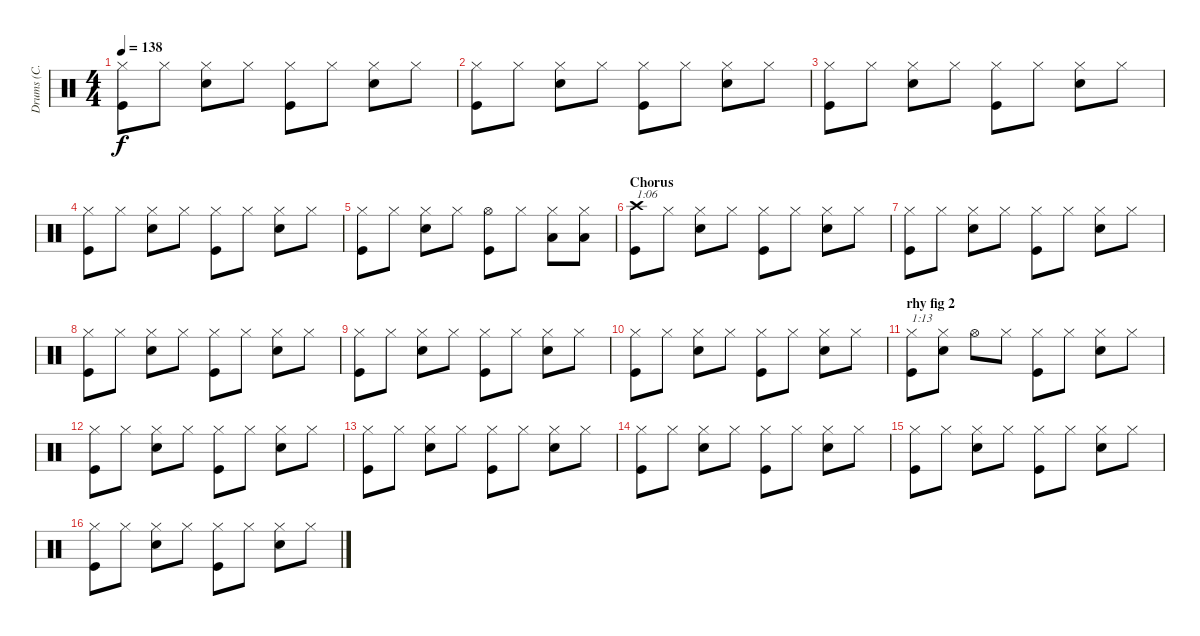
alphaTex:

\track ("Drums (C. Watts)" "Drums (C. ") {instrument percussion}
\staff {score}
\articulation defaults
\ts (4 4)
\tempo 138
\clef neutral
\ks c
("Hi-Hat (closed)" "Kick (hit)").8{dy f} "Hi-Hat (closed)".8 ("Hi-Hat (closed)" "Snare (hit) 2").8 "Hi-Hat (closed)".8 ("Hi-Hat (closed)" "Kick (hit)").8 "Hi-Hat (closed)".8 ("Hi-Hat (closed)" "Snare (hit) 2").8 "Hi-Hat (closed)".8 |
("Hi-Hat (closed)" "Kick (hit)").8 "Hi-Hat (closed)".8 ("Hi-Hat (closed)" "Snare (hit) 2").8 "Hi-Hat (closed)".8 ("Hi-Hat (closed)" "Kick (hit)").8 "Hi-Hat (closed)".8 ("Hi-Hat (closed)" "Snare (hit) 2").8 "Hi-Hat (closed)".8 |
("Hi-Hat (closed)" "Kick (hit)").8 "Hi-Hat (closed)".8 ("Hi-Hat (closed)" "Snare (hit) 2").8 "Hi-Hat (closed)".8 ("Hi-Hat (closed)" "Kick (hit)").8 "Hi-Hat (closed)".8 ("Hi-Hat (closed)" "Snare (hit) 2").8 "Hi-Hat (closed)".8 |
("Hi-Hat (closed)" "Kick (hit)").8 "Hi-Hat (closed)".8 ("Hi-Hat (closed)" "Snare (hit) 2").8 "Hi-Hat (closed)".8 ("Hi-Hat (closed)" "Kick (hit)").8 "Hi-Hat (closed)".8 ("Hi-Hat (closed)" "Snare (hit) 2").8 "Hi-Hat (closed)".8 |
("Hi-Hat (closed)" "Kick (hit)").8 "Hi-Hat (closed)".8 ("Hi-Hat (closed)" "Snare (hit) 2").8 "Hi-Hat (closed)".8 ("Hi-Hat (open)" "Kick (hit)").8 "Hi-Hat (closed)".8 ("Hi-Hat (closed)" "Low Floor Tom (hit)").8 ("Hi-Hat (closed)" "Low Floor Tom (hit)").8 |
\section ("" "Chorus")
("Crash high (hit)" "Kick (hit)").8{txt "1:06"} "Hi-Hat (closed)".8 ("Hi-Hat (closed)" "Snare (hit) 2").8 "Hi-Hat (closed)".8 ("Hi-Hat (closed)" "Kick (hit)").8 "Hi-Hat (closed)".8 ("Hi-Hat (closed)" "Snare (hit) 2").8 "Hi-Hat (closed)".8 |
("Hi-Hat (closed)" "Kick (hit)").8 "Hi-Hat (closed)".8 ("Hi-Hat (closed)" "Snare (hit) 2").8 "Hi-Hat (closed)".8 ("Hi-Hat (closed)" "Kick (hit)").8 "Hi-Hat (closed)".8 ("Hi-Hat (closed)" "Snare (hit) 2").8 "Hi-Hat (closed)".8 |
("Hi-Hat (closed)" "Kick (hit)").8 "Hi-Hat (closed)".8 ("Hi-Hat (closed)" "Snare (hit) 2").8 "Hi-Hat (closed)".8 ("Hi-Hat (closed)" "Kick (hit)").8 "Hi-Hat (closed)".8 ("Hi-Hat (closed)" "Snare (hit) 2").8 "Hi-Hat (closed)".8 |
("Hi-Hat (closed)" "Kick (hit)").8 "Hi-Hat (closed)".8 ("Hi-Hat (closed)" "Snare (hit) 2").8 "Hi-Hat (closed)".8 ("Hi-Hat (closed)" "Kick (hit)").8 "Hi-Hat (closed)".8 ("Hi-Hat (closed)" "Snare (hit) 2").8 "Hi-Hat (closed)".8 |
("Hi-Hat (closed)" "Kick (hit)").8 "Hi-Hat (closed)".8 ("Hi-Hat (closed)" "Snare (hit) 2").8 "Hi-Hat (closed)".8 ("Hi-Hat (closed)" "Kick (hit)").8 "Hi-Hat (closed)".8 ("Hi-Hat (closed)" "Snare (hit) 2").8 "Hi-Hat (closed)".8 |
\section ("" "rhy fig 2")
("Hi-Hat (closed)" "Kick (hit)").8{txt "1:13"} ("Hi-Hat (closed)" "Snare (hit) 2").8 "Hi-Hat (open)".8 "Hi-Hat (closed)".8 ("Hi-Hat (closed)" "Kick (hit)").8 "Hi-Hat (closed)".8 ("Hi-Hat (closed)" "Snare (hit) 2").8 "Hi-Hat (closed)".8 |
("Hi-Hat (closed)" "Kick (hit)").8 "Hi-Hat (closed)".8 ("Hi-Hat (closed)" "Snare (hit) 2").8 "Hi-Hat (closed)".8 ("Hi-Hat (closed)" "Kick (hit)").8 "Hi-Hat (closed)".8 ("Hi-Hat (closed)" "Snare (hit) 2").8 "Hi-Hat (closed)".8 |
("Hi-Hat (closed)" "Kick (hit)").8 "Hi-Hat (closed)".8 ("Hi-Hat (closed)" "Snare (hit) 2").8 "Hi-Hat (closed)".8 ("Hi-Hat (closed)" "Kick (hit)").8 "Hi-Hat (closed)".8 ("Hi-Hat (closed)" "Snare (hit) 2").8 "Hi-Hat (closed)".8 |
("Hi-Hat (closed)" "Kick (hit)").8 "Hi-Hat (closed)".8 ("Hi-Hat (closed)" "Snare (hit) 2").8 "Hi-Hat (closed)".8 ("Hi-Hat (closed)" "Kick (hit)").8 "Hi-Hat (closed)".8 ("Hi-Hat (closed)" "Snare (hit) 2").8 "Hi-Hat (closed)".8 |
("Hi-Hat (closed)" "Kick (hit)").8 "Hi-Hat (closed)".8 ("Hi-Hat (closed)" "Snare (hit) 2").8 "Hi-Hat (closed)".8 ("Hi-Hat (closed)" "Kick (hit)").8 "Hi-Hat (closed)".8 ("Hi-Hat (closed)" "Snare (hit) 2").8 "Hi-Hat (closed)".8 |
("Hi-Hat (closed)" "Kick (hit)").8 "Hi-Hat (closed)".8 ("Hi-Hat (closed)" "Snare (hit) 2").8 "Hi-Hat (closed)".8 ("Hi-Hat (closed)" "Kick (hit)").8 "Hi-Hat (closed)".8 ("Hi-Hat (closed)" "Snare (hit) 2").8 "Hi-Hat (closed)".8
